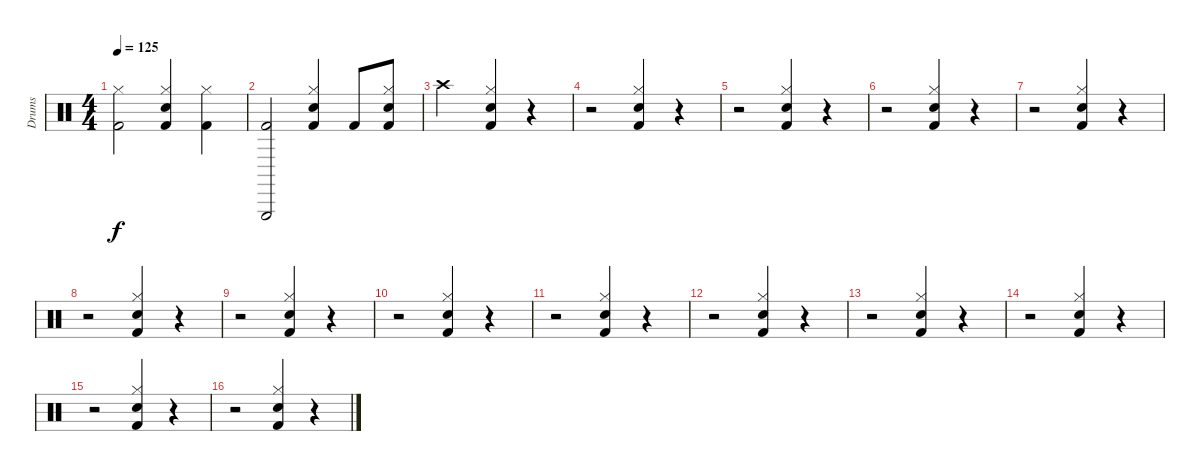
\track ("Drums" "Drums") {instrument percussion}
\staff {score}
\articulation defaults
\ts (4 4)
\tempo 125
\clef neutral
\ks c
("Kick (hit) 2" "Hi-Hat (closed)").2{dy f} ("Hi-Hat (closed)" "Snare (hit) 2" "Kick (hit) 2").4 ("Hi-Hat (closed)" "Kick (hit) 2").4 |
("Triangle (hit)" "Kick (hit) 2").2 ("Hi-Hat (closed)" "Snare (hit) 2" "Kick (hit) 2").4 "Kick (hit) 2".8 ("Kick (hit) 2" "Snare (hit) 2" "Hi-Hat (closed)").8 |
"Crash high (hit)".2 ("Hi-Hat (closed)" "Snare (hit) 2" "Kick (hit) 2").4 r.4 |
r.2 ("Hi-Hat (closed)" "Snare (hit) 2" "Kick (hit) 2").4 r.4 |
r.2 ("Hi-Hat (closed)" "Snare (hit) 2" "Kick (hit) 2").4 r.4 |
r.2 ("Hi-Hat (closed)" "Snare (hit) 2" "Kick (hit) 2").4 r.4 |
r.2 ("Hi-Hat (closed)" "Snare (hit) 2" "Kick (hit) 2").4 r.4 |
r.2 ("Hi-Hat (closed)" "Snare (hit) 2" "Kick (hit) 2").4 r.4 |
r.2 ("Hi-Hat (closed)" "Snare (hit) 2" "Kick (hit) 2").4 r.4 |
r.2 ("Hi-Hat (closed)" "Snare (hit) 2" "Kick (hit) 2").4 r.4 |
r.2 ("Hi-Hat (closed)" "Snare (hit) 2" "Kick (hit) 2").4 r.4 |
r.2 ("Hi-Hat (closed)" "Snare (hit) 2" "Kick (hit) 2").4 r.4 |
r.2 ("Hi-Hat (closed)" "Snare (hit) 2" "Kick (hit) 2").4 r.4 |
r.2 ("Hi-Hat (closed)" "Snare (hit) 2" "Kick (hit) 2").4 r.4 |
r.2 ("Hi-Hat (closed)" "Snare (hit) 2" "Kick (hit) 2").4 r.4 |
r.2 ("Hi-Hat (closed)" "Snare (hit) 2" "Kick (hit) 2").4 r.4
